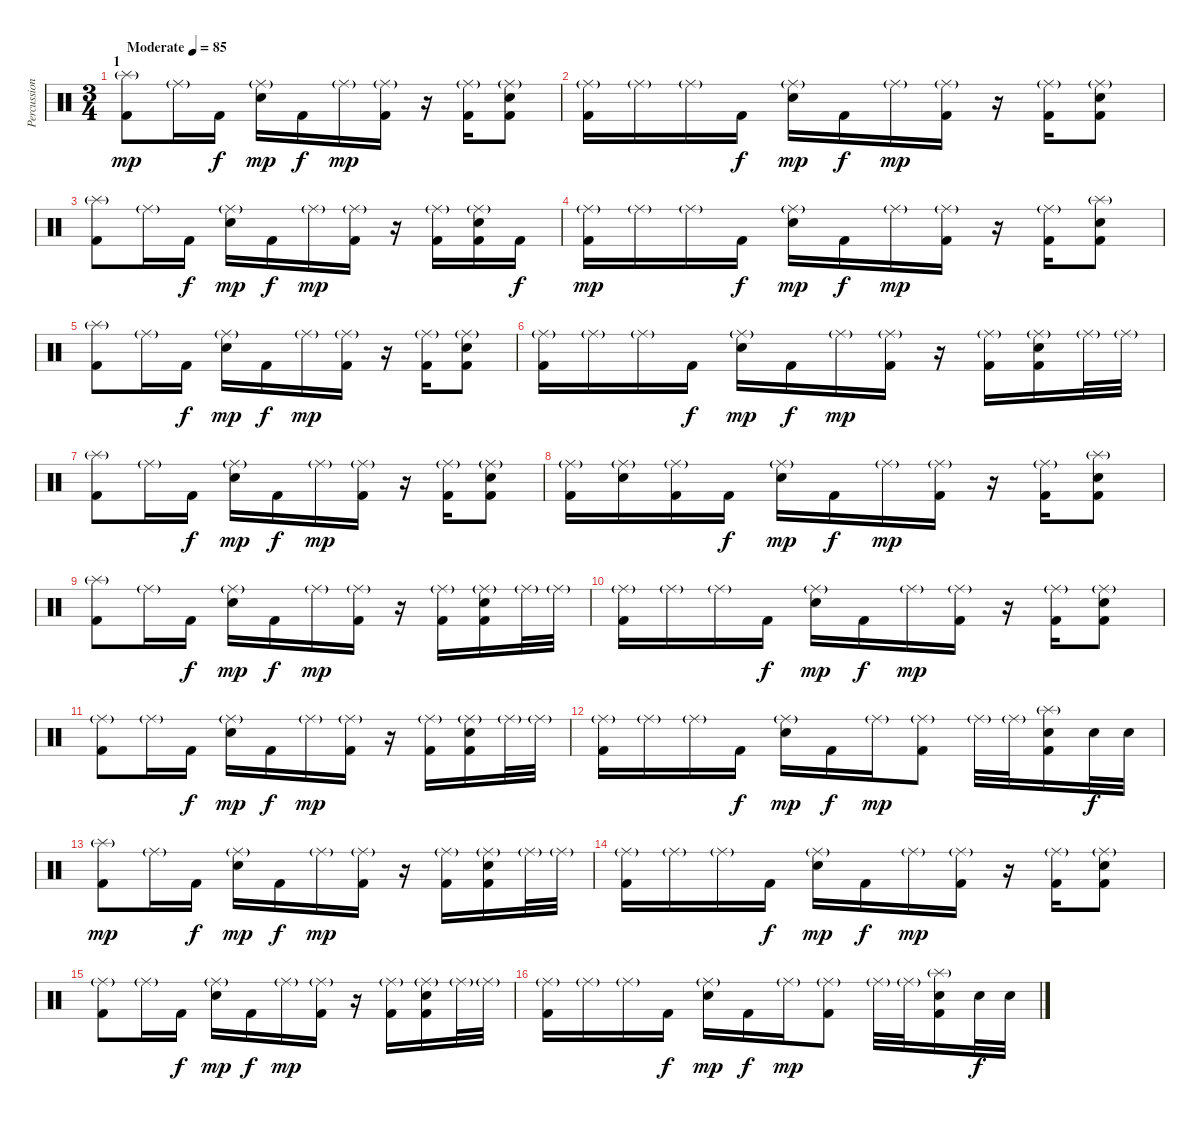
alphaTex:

\track ("Percussion" "Percussion") {instrument percussion}
\staff {score}
\articulation defaults
\ts (3 4)
\section ("" "1")
\tempo (85 "Moderate")
\clef neutral
\ks c
("Splash (hit)"{g} "Kick (hit) 2").8{dy mp} "Ride (middle)"{g}.16 "Kick (hit) 2".16{dy f} ("Ride (middle)"{g} "Snare (hit) 2").16{dy mp} "Kick (hit) 2".16{dy f} "Ride (middle)"{g}.16{dy mp} ("Ride (middle)"{g} "Kick (hit) 2").16 r.16 ("Ride (middle)"{g} "Kick (hit) 2").16 ("Ride (middle)"{g} "Snare (hit) 2" "Kick (hit) 2").8 |
("Ride (middle)"{g} "Kick (hit) 2").16 "Ride (middle)"{g}.16 "Ride (middle)"{g}.16 "Kick (hit) 2".16{dy f} ("Ride (middle)"{g} "Snare (hit) 2").16{dy mp} "Kick (hit) 2".16{dy f} "Ride (middle)"{g}.16{dy mp} ("Ride (middle)"{g} "Kick (hit) 2").16 r.16 ("Ride (middle)"{g} "Kick (hit) 2").16 ("Ride (middle)"{g} "Snare (hit) 2" "Kick (hit) 2").8 |
("Splash (hit)"{g} "Kick (hit) 2").8 "Ride (middle)"{g}.16 "Kick (hit) 2".16{dy f} ("Ride (middle)"{g} "Snare (hit) 2").16{dy mp} "Kick (hit) 2".16{dy f} "Ride (middle)"{g}.16{dy mp} ("Ride (middle)"{g} "Kick (hit) 2").16 r.16 ("Ride (middle)"{g} "Kick (hit) 2").16 ("Ride (middle)"{g} "Snare (hit) 2" "Kick (hit) 2").16 "Kick (hit) 2".16{dy f} |
("Ride (middle)"{g} "Kick (hit) 2").16{dy mp} "Ride (middle)"{g}.16 "Ride (middle)"{g}.16 "Kick (hit) 2".16{dy f} ("Ride (middle)"{g} "Snare (hit) 2").16{dy mp} "Kick (hit) 2".16{dy f} "Ride (middle)"{g}.16{dy mp} ("Ride (middle)"{g} "Kick (hit) 2").16 r.16 ("Ride (middle)"{g} "Kick (hit) 2").16 ("Splash (hit)"{g} "Snare (hit) 2" "Kick (hit) 2").8 |
("Splash (hit)"{g} "Kick (hit) 2").8 "Ride (middle)"{g}.16 "Kick (hit) 2".16{dy f} ("Ride (middle)"{g} "Snare (hit) 2").16{dy mp} "Kick (hit) 2".16{dy f} "Ride (middle)"{g}.16{dy mp} ("Ride (middle)"{g} "Kick (hit) 2").16 r.16 ("Ride (middle)"{g} "Kick (hit) 2").16 ("Ride (middle)"{g} "Snare (hit) 2" "Kick (hit) 2").8 |
("Ride (middle)"{g} "Kick (hit) 2").16 "Ride (middle)"{g}.16 "Ride (middle)"{g}.16 "Kick (hit) 2".16{dy f} ("Ride (middle)"{g} "Snare (hit) 2").16{dy mp} "Kick (hit) 2".16{dy f} "Ride (middle)"{g}.16{dy mp} ("Ride (middle)"{g} "Kick (hit) 2").16 r.16 ("Ride (middle)"{g} "Kick (hit) 2").16 ("Ride (middle)"{g} "Snare (hit) 2" "Kick (hit) 2").16 "Ride (middle)"{g}.32 "Ride (middle)"{g}.32 |
("Splash (hit)"{g} "Kick (hit) 2").8 "Ride (middle)"{g}.16 "Kick (hit) 2".16{dy f} ("Ride (middle)"{g} "Snare (hit) 2").16{dy mp} "Kick (hit) 2".16{dy f} "Ride (middle)"{g}.16{dy mp} ("Ride (middle)"{g} "Kick (hit) 2").16 r.16 ("Ride (middle)"{g} "Kick (hit) 2").16 ("Ride (middle)"{g} "Snare (hit) 2" "Kick (hit) 2").8 |
("Ride (middle)"{g} "Kick (hit) 2").16 ("Ride (middle)"{g} "Snare (hit) 2").16 ("Ride (middle)"{g} "Kick (hit) 2").16 "Kick (hit) 2".16{dy f} ("Ride (middle)"{g} "Snare (hit) 2").16{dy mp} "Kick (hit) 2".16{dy f} "Ride (middle)"{g}.16{dy mp} ("Ride (middle)"{g} "Kick (hit) 2").16 r.16 ("Ride (middle)"{g} "Kick (hit) 2").16 ("Splash (hit)"{g} "Snare (hit) 2" "Kick (hit) 2").8 |
("Splash (hit)"{g} "Kick (hit) 2").8 "Ride (middle)"{g}.16 "Kick (hit) 2".16{dy f} ("Ride (middle)"{g} "Snare (hit) 2").16{dy mp} "Kick (hit) 2".16{dy f} "Ride (middle)"{g}.16{dy mp} ("Ride (middle)"{g} "Kick (hit) 2").16 r.16 ("Ride (middle)"{g} "Kick (hit) 2").16 ("Ride (middle)"{g} "Snare (hit) 2" "Kick (hit) 2").16 "Ride (middle)"{g}.32 "Ride (middle)"{g}.32 |
("Ride (middle)"{g} "Kick (hit) 2").16 "Ride (middle)"{g}.16 "Ride (middle)"{g}.16 "Kick (hit) 2".16{dy f} ("Ride (middle)"{g} "Snare (hit) 2").16{dy mp} "Kick (hit) 2".16{dy f} "Ride (middle)"{g}.16{dy mp} ("Ride (middle)"{g} "Kick (hit) 2").16 r.16 ("Ride (middle)"{g} "Kick (hit) 2").16 ("Ride (middle)"{g} "Snare (hit) 2" "Kick (hit) 2").8 |
("Ride (middle)"{g} "Kick (hit) 2").8 "Ride (middle)"{g}.16 "Kick (hit) 2".16{dy f} ("Ride (middle)"{g} "Snare (hit) 2").16{dy mp} "Kick (hit) 2".16{dy f} "Ride (middle)"{g}.16{dy mp} ("Ride (middle)"{g} "Kick (hit) 2").16 r.16 ("Ride (middle)"{g} "Kick (hit) 2").16 ("Ride (middle)"{g} "Snare (hit) 2" "Kick (hit) 2").16 "Ride (middle)"{g}.32 "Ride (middle)"{g}.32 |
("Ride (middle)"{g} "Kick (hit) 2").16 "Ride (middle)"{g}.16 "Ride (middle)"{g}.16 "Kick (hit) 2".16{dy f} ("Ride (middle)"{g} "Snare (hit) 2").16{dy mp} "Kick (hit) 2".16{dy f} "Ride (middle)"{g}.16{dy mp} ("Ride (middle)"{g} "Kick (hit) 2").8 "Ride (middle)"{g}.32 "Ride (middle)"{g}.32 ("Splash (hit)"{g} "Snare (hit) 2" "Kick (hit) 2").16 "Snare (hit) 2".32{dy f} "Snare (hit) 2".32 |
("Splash (hit)"{g} "Kick (hit) 2").8{dy mp} "Ride (middle)"{g}.16 "Kick (hit) 2".16{dy f} ("Ride (middle)"{g} "Snare (hit) 2").16{dy mp} "Kick (hit) 2".16{dy f} "Ride (middle)"{g}.16{dy mp} ("Ride (middle)"{g} "Kick (hit) 2").16 r.16 ("Ride (middle)"{g} "Kick (hit) 2").16 ("Ride (middle)"{g} "Snare (hit) 2" "Kick (hit) 2").16 "Ride (middle)"{g}.32 "Ride (middle)"{g}.32 |
("Ride (middle)"{g} "Kick (hit) 2").16 "Ride (middle)"{g}.16 "Ride (middle)"{g}.16 "Kick (hit) 2".16{dy f} ("Ride (middle)"{g} "Snare (hit) 2").16{dy mp} "Kick (hit) 2".16{dy f} "Ride (middle)"{g}.16{dy mp} ("Ride (middle)"{g} "Kick (hit) 2").16 r.16 ("Ride (middle)"{g} "Kick (hit) 2").16 ("Ride (middle)"{g} "Snare (hit) 2" "Kick (hit) 2").8 |
("Ride (middle)"{g} "Kick (hit) 2").8 "Ride (middle)"{g}.16 "Kick (hit) 2".16{dy f} ("Ride (middle)"{g} "Snare (hit) 2").16{dy mp} "Kick (hit) 2".16{dy f} "Ride (middle)"{g}.16{dy mp} ("Ride (middle)"{g} "Kick (hit) 2").16 r.16 ("Ride (middle)"{g} "Kick (hit) 2").16 ("Ride (middle)"{g} "Snare (hit) 2" "Kick (hit) 2").16 "Ride (middle)"{g}.32 "Ride (middle)"{g}.32 |
("Ride (middle)"{g} "Kick (hit) 2").16 "Ride (middle)"{g}.16 "Ride (middle)"{g}.16 "Kick (hit) 2".16{dy f} ("Ride (middle)"{g} "Snare (hit) 2").16{dy mp} "Kick (hit) 2".16{dy f} "Ride (middle)"{g}.16{dy mp} ("Ride (middle)"{g} "Kick (hit) 2").8 "Ride (middle)"{g}.32 "Ride (middle)"{g}.32 ("Splash (hit)"{g} "Snare (hit) 2" "Kick (hit) 2").16 "Snare (hit) 2".32{dy f} "Snare (hit) 2".32
